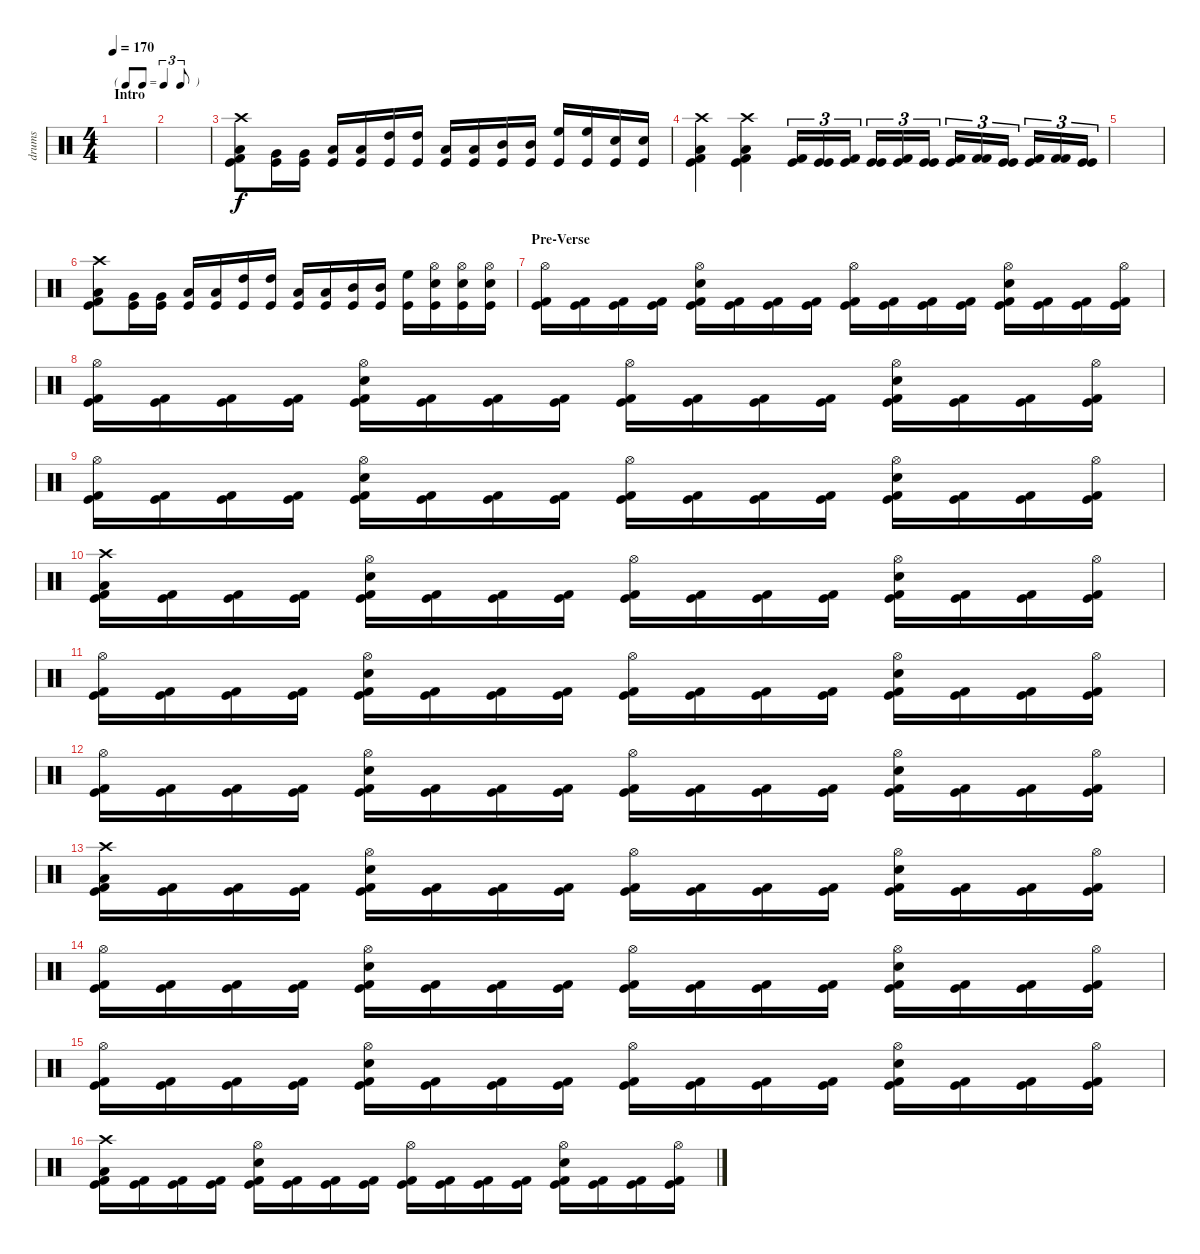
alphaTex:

\track ("drums" "drums") {instrument percussion}
\staff {score}
\articulation defaults
\ts (4 4)
\tf triplet8th
\section ("" "Intro")
\tempo 170
\clef neutral
\ks c
|
|
("Crash high (hit)" "Low Floor Tom (hit)" "Kick (hit) 2" "Kick (hit)").8 ("Very Low Tom (hit)" "Kick (hit)").16 ("Very Low Tom (hit)" "Kick (hit)").16 ("Low Tom (hit)" "Kick (hit)").16 ("Low Tom (hit)" "Kick (hit)").16 ("High Tom (hit)" "Kick (hit)").16 ("High Tom (hit)" "Kick (hit)").16 ("Low Floor Tom (hit)" "Kick (hit)").16 ("Low Floor Tom (hit)" "Kick (hit)").16 ("Mid Tom (hit)" "Kick (hit)").16 ("Mid Tom (hit)" "Kick (hit)").16 ("High Floor Tom (hit)" "Kick (hit)").16 ("High Floor Tom (hit)" "Kick (hit)").16 ("Snare (hit) 2" "Kick (hit)").16 ("Snare (hit) 2" "Kick (hit)").16 |
("Crash high (hit)" "Low Floor Tom (hit)" "Kick (hit) 2" "Kick (hit)").4 ("Crash high (hit)" "Low Floor Tom (hit)" "Kick (hit) 2" "Kick (hit)").4 ("Kick (hit) 2" "Kick (hit)").16{tu (3 2)} ("Kick (hit)" "Kick (hit)").16{tu (3 2)} ("Kick (hit) 2" "Kick (hit)").16{tu (3 2)} ("Kick (hit)" "Kick (hit)").16{tu (3 2)} ("Kick (hit) 2" "Kick (hit)").16{tu (3 2)} ("Kick (hit)" "Kick (hit)").16{tu (3 2)} ("Kick (hit) 2" "Kick (hit)").16{tu (3 2)} ("Kick (hit) 2" "Kick (hit) 2").16{tu (3 2)} ("Kick (hit)" "Kick (hit)").16{tu (3 2)} ("Kick (hit) 2" "Kick (hit)").16{tu (3 2)} ("Kick (hit) 2" "Kick (hit) 2").16{tu (3 2)} ("Kick (hit)" "Kick (hit)").16{tu (3 2)} |
|
("Crash high (hit)" "Low Floor Tom (hit)" "Kick (hit) 2" "Kick (hit)").8 ("Very Low Tom (hit)" "Kick (hit)").16 ("Very Low Tom (hit)" "Kick (hit)").16 ("Low Tom (hit)" "Kick (hit)").16 ("Low Tom (hit)" "Kick (hit)").16 ("High Tom (hit)" "Kick (hit)").16 ("High Tom (hit)" "Kick (hit)").16 ("Low Floor Tom (hit)" "Kick (hit)").16 ("Low Floor Tom (hit)" "Kick (hit)").16 ("Mid Tom (hit)" "Kick (hit)").16 ("Mid Tom (hit)" "Kick (hit)").16 ("High Floor Tom (hit)" "Kick (hit)").16 ("Hi-Hat (open)" "Snare (hit) 2" "Kick (hit)").16 ("Hi-Hat (open)" "Snare (hit) 2" "Kick (hit)").16 ("Hi-Hat (open)" "Snare (hit) 2" "Kick (hit)").16 |
\section ("" "Pre-Verse")
("Hi-Hat (open)" "Kick (hit)" "Kick (hit) 2").16 ("Kick (hit)" "Kick (hit) 2").16 ("Kick (hit)" "Kick (hit) 2").16 ("Kick (hit)" "Kick (hit) 2").16 ("Hi-Hat (open)" "Snare (hit) 2" "Kick (hit)" "Kick (hit) 2").16 ("Kick (hit)" "Kick (hit) 2").16 ("Kick (hit)" "Kick (hit) 2").16 ("Kick (hit)" "Kick (hit) 2").16 ("Hi-Hat (open)" "Kick (hit)" "Kick (hit) 2").16 ("Kick (hit)" "Kick (hit) 2").16 ("Kick (hit)" "Kick (hit) 2").16 ("Kick (hit)" "Kick (hit) 2").16 ("Hi-Hat (open)" "Snare (hit) 2" "Kick (hit)" "Kick (hit) 2").16 ("Kick (hit)" "Kick (hit) 2").16 ("Kick (hit)" "Kick (hit) 2").16 ("Hi-Hat (open)" "Kick (hit)" "Kick (hit) 2").16 |
("Hi-Hat (open)" "Kick (hit)" "Kick (hit) 2").16 ("Kick (hit)" "Kick (hit) 2").16 ("Kick (hit)" "Kick (hit) 2").16 ("Kick (hit)" "Kick (hit) 2").16 ("Hi-Hat (open)" "Snare (hit) 2" "Kick (hit)" "Kick (hit) 2").16 ("Kick (hit)" "Kick (hit) 2").16 ("Kick (hit)" "Kick (hit) 2").16 ("Kick (hit)" "Kick (hit) 2").16 ("Hi-Hat (open)" "Kick (hit)" "Kick (hit) 2").16 ("Kick (hit)" "Kick (hit) 2").16 ("Kick (hit)" "Kick (hit) 2").16 ("Kick (hit)" "Kick (hit) 2").16 ("Hi-Hat (open)" "Snare (hit) 2" "Kick (hit)" "Kick (hit) 2").16 ("Kick (hit)" "Kick (hit) 2").16 ("Kick (hit)" "Kick (hit) 2").16 ("Hi-Hat (open)" "Kick (hit)" "Kick (hit) 2").16 |
("Hi-Hat (open)" "Kick (hit)" "Kick (hit) 2").16 ("Kick (hit)" "Kick (hit) 2").16 ("Kick (hit)" "Kick (hit) 2").16 ("Kick (hit)" "Kick (hit) 2").16 ("Hi-Hat (open)" "Snare (hit) 2" "Kick (hit)" "Kick (hit) 2").16 ("Kick (hit)" "Kick (hit) 2").16 ("Kick (hit)" "Kick (hit) 2").16 ("Kick (hit)" "Kick (hit) 2").16 ("Hi-Hat (open)" "Kick (hit)" "Kick (hit) 2").16 ("Kick (hit)" "Kick (hit) 2").16 ("Kick (hit)" "Kick (hit) 2").16 ("Kick (hit)" "Kick (hit) 2").16 ("Hi-Hat (open)" "Snare (hit) 2" "Kick (hit)" "Kick (hit) 2").16 ("Kick (hit)" "Kick (hit) 2").16 ("Kick (hit)" "Kick (hit) 2").16 ("Hi-Hat (open)" "Kick (hit)" "Kick (hit) 2").16 |
("Crash high (hit)" "Low Floor Tom (hit)" "Kick (hit)" "Kick (hit) 2").16 ("Kick (hit)" "Kick (hit) 2").16 ("Kick (hit)" "Kick (hit) 2").16 ("Kick (hit)" "Kick (hit) 2").16 ("Hi-Hat (open)" "Snare (hit) 2" "Kick (hit)" "Kick (hit) 2").16 ("Kick (hit)" "Kick (hit) 2").16 ("Kick (hit)" "Kick (hit) 2").16 ("Kick (hit)" "Kick (hit) 2").16 ("Hi-Hat (open)" "Kick (hit)" "Kick (hit) 2").16 ("Kick (hit)" "Kick (hit) 2").16 ("Kick (hit)" "Kick (hit) 2").16 ("Kick (hit)" "Kick (hit) 2").16 ("Hi-Hat (open)" "Snare (hit) 2" "Kick (hit)" "Kick (hit) 2").16 ("Kick (hit)" "Kick (hit) 2").16 ("Kick (hit)" "Kick (hit) 2").16 ("Hi-Hat (open)" "Kick (hit)" "Kick (hit) 2").16 |
("Hi-Hat (open)" "Kick (hit)" "Kick (hit) 2").16 ("Kick (hit)" "Kick (hit) 2").16 ("Kick (hit)" "Kick (hit) 2").16 ("Kick (hit)" "Kick (hit) 2").16 ("Hi-Hat (open)" "Snare (hit) 2" "Kick (hit)" "Kick (hit) 2").16 ("Kick (hit)" "Kick (hit) 2").16 ("Kick (hit)" "Kick (hit) 2").16 ("Kick (hit)" "Kick (hit) 2").16 ("Hi-Hat (open)" "Kick (hit)" "Kick (hit) 2").16 ("Kick (hit)" "Kick (hit) 2").16 ("Kick (hit)" "Kick (hit) 2").16 ("Kick (hit)" "Kick (hit) 2").16 ("Hi-Hat (open)" "Snare (hit) 2" "Kick (hit)" "Kick (hit) 2").16 ("Kick (hit)" "Kick (hit) 2").16 ("Kick (hit)" "Kick (hit) 2").16 ("Hi-Hat (open)" "Kick (hit)" "Kick (hit) 2").16 |
("Hi-Hat (open)" "Kick (hit)" "Kick (hit) 2").16 ("Kick (hit)" "Kick (hit) 2").16 ("Kick (hit)" "Kick (hit) 2").16 ("Kick (hit)" "Kick (hit) 2").16 ("Hi-Hat (open)" "Snare (hit) 2" "Kick (hit)" "Kick (hit) 2").16 ("Kick (hit)" "Kick (hit) 2").16 ("Kick (hit)" "Kick (hit) 2").16 ("Kick (hit)" "Kick (hit) 2").16 ("Hi-Hat (open)" "Kick (hit)" "Kick (hit) 2").16 ("Kick (hit)" "Kick (hit) 2").16 ("Kick (hit)" "Kick (hit) 2").16 ("Kick (hit)" "Kick (hit) 2").16 ("Hi-Hat (open)" "Snare (hit) 2" "Kick (hit)" "Kick (hit) 2").16 ("Kick (hit)" "Kick (hit) 2").16 ("Kick (hit)" "Kick (hit) 2").16 ("Hi-Hat (open)" "Kick (hit)" "Kick (hit) 2").16 |
("Crash high (hit)" "Low Floor Tom (hit)" "Kick (hit)" "Kick (hit) 2").16 ("Kick (hit)" "Kick (hit) 2").16 ("Kick (hit)" "Kick (hit) 2").16 ("Kick (hit)" "Kick (hit) 2").16 ("Hi-Hat (open)" "Snare (hit) 2" "Kick (hit)" "Kick (hit) 2").16 ("Kick (hit)" "Kick (hit) 2").16 ("Kick (hit)" "Kick (hit) 2").16 ("Kick (hit)" "Kick (hit) 2").16 ("Hi-Hat (open)" "Kick (hit)" "Kick (hit) 2").16 ("Kick (hit)" "Kick (hit) 2").16 ("Kick (hit)" "Kick (hit) 2").16 ("Kick (hit)" "Kick (hit) 2").16 ("Hi-Hat (open)" "Snare (hit) 2" "Kick (hit)" "Kick (hit) 2").16 ("Kick (hit)" "Kick (hit) 2").16 ("Kick (hit)" "Kick (hit) 2").16 ("Hi-Hat (open)" "Kick (hit)" "Kick (hit) 2").16 |
("Hi-Hat (open)" "Kick (hit)" "Kick (hit) 2").16 ("Kick (hit)" "Kick (hit) 2").16 ("Kick (hit)" "Kick (hit) 2").16 ("Kick (hit)" "Kick (hit) 2").16 ("Hi-Hat (open)" "Snare (hit) 2" "Kick (hit)" "Kick (hit) 2").16 ("Kick (hit)" "Kick (hit) 2").16 ("Kick (hit)" "Kick (hit) 2").16 ("Kick (hit)" "Kick (hit) 2").16 ("Hi-Hat (open)" "Kick (hit)" "Kick (hit) 2").16 ("Kick (hit)" "Kick (hit) 2").16 ("Kick (hit)" "Kick (hit) 2").16 ("Kick (hit)" "Kick (hit) 2").16 ("Hi-Hat (open)" "Snare (hit) 2" "Kick (hit)" "Kick (hit) 2").16 ("Kick (hit)" "Kick (hit) 2").16 ("Kick (hit)" "Kick (hit) 2").16 ("Hi-Hat (open)" "Kick (hit)" "Kick (hit) 2").16 |
("Hi-Hat (open)" "Kick (hit)" "Kick (hit) 2").16 ("Kick (hit)" "Kick (hit) 2").16 ("Kick (hit)" "Kick (hit) 2").16 ("Kick (hit)" "Kick (hit) 2").16 ("Hi-Hat (open)" "Snare (hit) 2" "Kick (hit)" "Kick (hit) 2").16 ("Kick (hit)" "Kick (hit) 2").16 ("Kick (hit)" "Kick (hit) 2").16 ("Kick (hit)" "Kick (hit) 2").16 ("Hi-Hat (open)" "Kick (hit)" "Kick (hit) 2").16 ("Kick (hit)" "Kick (hit) 2").16 ("Kick (hit)" "Kick (hit) 2").16 ("Kick (hit)" "Kick (hit) 2").16 ("Hi-Hat (open)" "Snare (hit) 2" "Kick (hit)" "Kick (hit) 2").16 ("Kick (hit)" "Kick (hit) 2").16 ("Kick (hit)" "Kick (hit) 2").16 ("Hi-Hat (open)" "Kick (hit)" "Kick (hit) 2").16 |
("Crash high (hit)" "Low Floor Tom (hit)" "Kick (hit)" "Kick (hit) 2").16 ("Kick (hit)" "Kick (hit) 2").16 ("Kick (hit)" "Kick (hit) 2").16 ("Kick (hit)" "Kick (hit) 2").16 ("Hi-Hat (open)" "Snare (hit) 2" "Kick (hit)" "Kick (hit) 2").16 ("Kick (hit)" "Kick (hit) 2").16 ("Kick (hit)" "Kick (hit) 2").16 ("Kick (hit)" "Kick (hit) 2").16 ("Hi-Hat (open)" "Kick (hit)" "Kick (hit) 2").16 ("Kick (hit)" "Kick (hit) 2").16 ("Kick (hit)" "Kick (hit) 2").16 ("Kick (hit)" "Kick (hit) 2").16 ("Hi-Hat (open)" "Snare (hit) 2" "Kick (hit)" "Kick (hit) 2").16 ("Kick (hit)" "Kick (hit) 2").16 ("Kick (hit)" "Kick (hit) 2").16 ("Hi-Hat (open)" "Kick (hit)" "Kick (hit) 2").16
